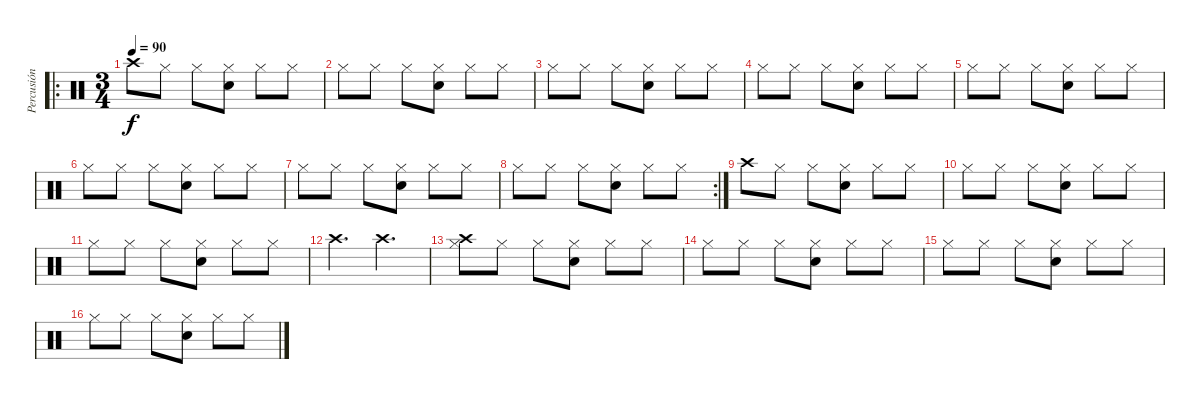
\track ("Percusión" "Percusión") {instrument percussion}
\staff {score}
\articulation defaults
\ro
\ts (3 4)
\tempo 90
\clef neutral
\ks c "Crash high (hit)".8{dy f} "Hi-Hat (closed)".8 "Hi-Hat (closed)".8
("Electric Snare (hit)" "Hi-Hat (closed)").8 "Hi-Hat (closed)".8 "Hi-Hat (closed)".8 |
"Hi-Hat (closed)".8 "Hi-Hat (closed)".8 "Hi-Hat (closed)".8 ("Electric Snare (hit)" "Hi-Hat (closed)").8 "Hi-Hat (closed)".8 "Hi-Hat (closed)".8 |
"Hi-Hat (closed)".8 "Hi-Hat (closed)".8 "Hi-Hat (closed)".8 ("Electric Snare (hit)" "Hi-Hat (closed)").8 "Hi-Hat (closed)".8 "Hi-Hat (closed)".8 |
"Hi-Hat (closed)".8 "Hi-Hat (closed)".8 "Hi-Hat (closed)".8 ("Electric Snare (hit)" "Hi-Hat (closed)").8 "Hi-Hat (closed)".8 "Hi-Hat (closed)".8 |
"Hi-Hat (closed)".8 "Hi-Hat (closed)".8 "Hi-Hat (closed)".8 ("Electric Snare (hit)" "Hi-Hat (closed)").8 "Hi-Hat (closed)".8 "Hi-Hat (closed)".8 |
"Hi-Hat (closed)".8 "Hi-Hat (closed)".8 "Hi-Hat (closed)".8 ("Electric Snare (hit)" "Hi-Hat (closed)").8 "Hi-Hat (closed)".8 "Hi-Hat (closed)".8 |
"Hi-Hat (closed)".8 "Hi-Hat (closed)".8 "Hi-Hat (closed)".8 ("Electric Snare (hit)" "Hi-Hat (closed)").8 "Hi-Hat (closed)".8 "Hi-Hat (closed)".8 |
\rc 2 "Hi-Hat (closed)".8 "Hi-Hat (closed)".8 "Hi-Hat (closed)".8
("Electric Snare (hit)" "Hi-Hat (closed)").8 "Hi-Hat (closed)".8 "Hi-Hat (closed)".8 |
"Crash high (hit)".8 "Hi-Hat (closed)".8 "Hi-Hat (closed)".8 ("Electric Snare (hit)" "Hi-Hat (closed)").8 "Hi-Hat (closed)".8 "Hi-Hat (closed)".8 |
"Hi-Hat (closed)".8 "Hi-Hat (closed)".8 "Hi-Hat (closed)".8 ("Electric Snare (hit)" "Hi-Hat (closed)").8 "Hi-Hat (closed)".8 "Hi-Hat (closed)".8 |
"Hi-Hat (closed)".8 "Hi-Hat (closed)".8 "Hi-Hat (closed)".8 ("Electric Snare (hit)" "Hi-Hat (closed)").8 "Hi-Hat (closed)".8 "Hi-Hat (closed)".8 |
"Crash high (hit)".4{d} "Crash high (hit)".4{d} |
("Crash high (hit)" "Hi-Hat (closed)").8 "Hi-Hat (closed)".8 "Hi-Hat (closed)".8 ("Electric Snare (hit)" "Hi-Hat (closed)").8 "Hi-Hat (closed)".8 "Hi-Hat (closed)".8 |
"Hi-Hat (closed)".8 "Hi-Hat (closed)".8 "Hi-Hat (closed)".8 ("Electric Snare (hit)" "Hi-Hat (closed)").8 "Hi-Hat (closed)".8 "Hi-Hat (closed)".8 |
"Hi-Hat (closed)".8 "Hi-Hat (closed)".8 "Hi-Hat (closed)".8 ("Electric Snare (hit)" "Hi-Hat (closed)").8 "Hi-Hat (closed)".8 "Hi-Hat (closed)".8 |
"Hi-Hat (closed)".8 "Hi-Hat (closed)".8 "Hi-Hat (closed)".8 ("Electric Snare (hit)" "Hi-Hat (closed)").8 "Hi-Hat (closed)".8 "Hi-Hat (closed)".8
